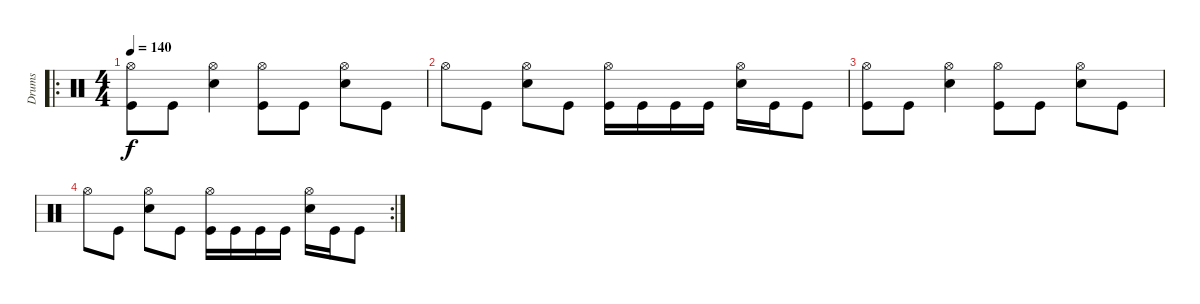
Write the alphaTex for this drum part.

\track ("Drums" "Drums") {instrument percussion}
\staff {score}
\articulation defaults
\ro
\ts (4 4)
\tempo 140
\clef neutral
\ks c
("Hi-Hat (open)" "Kick (hit)").8{dy f} "Kick (hit)".8 ("Hi-Hat (open)" "Snare (hit) 2").4 ("Hi-Hat (open)" "Kick (hit)").8 "Kick (hit)".8 ("Hi-Hat (open)" "Snare (hit) 2").8 "Kick (hit)".8 |
"Hi-Hat (open)".8 "Kick (hit)".8 ("Hi-Hat (open)" "Snare (hit) 2").8 "Kick (hit)".8 ("Hi-Hat (open)" "Kick (hit)").16 "Kick (hit)".16 "Kick (hit)".16 "Kick (hit)".16 ("Hi-Hat (open)" "Snare (hit) 2").16 "Kick (hit)".16 "Kick (hit)".8 |
("Hi-Hat (open)" "Kick (hit)").8 "Kick (hit)".8 ("Hi-Hat (open)" "Snare (hit) 2").4 ("Hi-Hat (open)" "Kick (hit)").8 "Kick (hit)".8 ("Hi-Hat (open)" "Snare (hit) 2").8 "Kick (hit)".8 |
\rc 2 "Hi-Hat (open)".8 "Kick (hit)".8
("Hi-Hat (open)" "Snare (hit) 2").8 "Kick (hit)".8 ("Hi-Hat (open)" "Kick (hit)").16 "Kick (hit)".16 "Kick (hit)".16 "Kick (hit)".16 ("Hi-Hat (open)" "Snare (hit) 2").16 "Kick (hit)".16 "Kick (hit)".8
